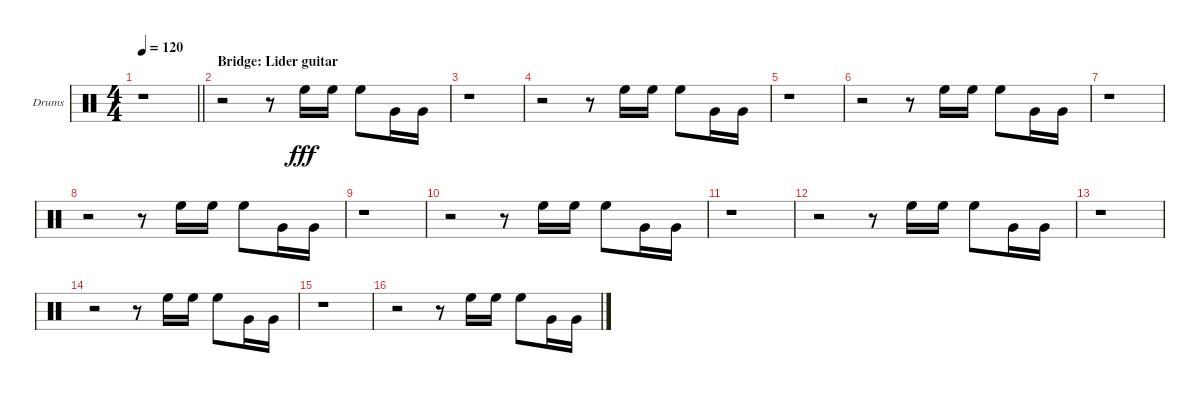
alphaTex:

\bracketExtendMode groupsimilarinstruments
\firstSystemTrackNameOrientation horizontal
\otherSystemsTrackNameOrientation horizontal
\track ("Drumkit" "Drums") {instrument percussion}
\staff {score}
\articulation defaults
\ts (4 4)
\tempo 120
\clef neutral
\barLineRight lightlight
\ks c
r.1{dy fff} |
\section ("" "Bridge: Lider guitar")
r.2 r.8 "High Floor Tom (hit)".16 "High Floor Tom (hit)".16 "High Floor Tom (hit)".8 "Very Low Tom (hit)".16 "Very Low Tom (hit)".16 |
r.1 |
r.2 r.8 "High Floor Tom (hit)".16 "High Floor Tom (hit)".16 "High Floor Tom (hit)".8 "Very Low Tom (hit)".16 "Very Low Tom (hit)".16 |
r.1 |
r.2 r.8 "High Floor Tom (hit)".16 "High Floor Tom (hit)".16 "High Floor Tom (hit)".8 "Very Low Tom (hit)".16 "Very Low Tom (hit)".16 |
r.1 |
r.2 r.8 "High Floor Tom (hit)".16 "High Floor Tom (hit)".16 "High Floor Tom (hit)".8 "Very Low Tom (hit)".16 "Very Low Tom (hit)".16 |
r.1 |
r.2 r.8 "High Floor Tom (hit)".16 "High Floor Tom (hit)".16 "High Floor Tom (hit)".8 "Very Low Tom (hit)".16 "Very Low Tom (hit)".16 |
r.1 |
r.2 r.8 "High Floor Tom (hit)".16 "High Floor Tom (hit)".16 "High Floor Tom (hit)".8 "Very Low Tom (hit)".16 "Very Low Tom (hit)".16 |
r.1 |
r.2 r.8 "High Floor Tom (hit)".16 "High Floor Tom (hit)".16 "High Floor Tom (hit)".8 "Very Low Tom (hit)".16 "Very Low Tom (hit)".16 |
r.1 |
r.2 r.8 "High Floor Tom (hit)".16 "High Floor Tom (hit)".16 "High Floor Tom (hit)".8 "Very Low Tom (hit)".16 "Very Low Tom (hit)".16
